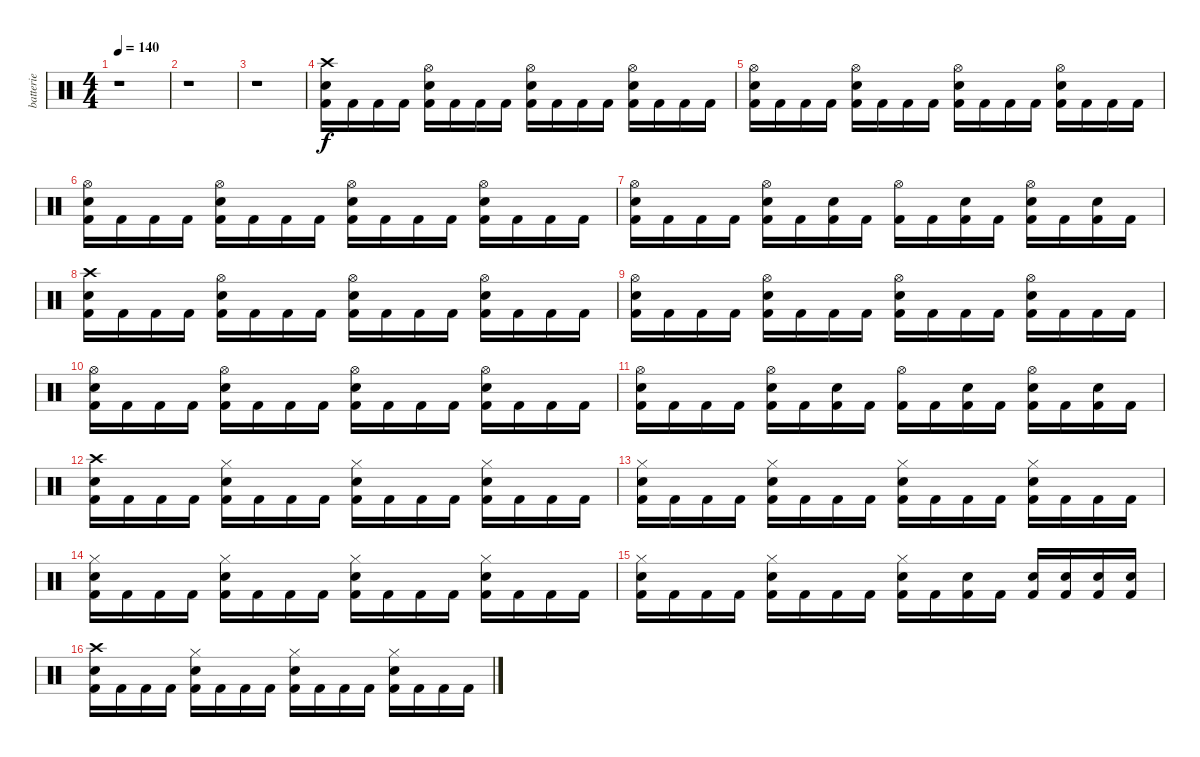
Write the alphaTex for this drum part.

\track ("batterie" "batterie") {instrument percussion}
\staff {score}
\articulation defaults
\ts (4 4)
\tempo 140
\clef neutral
\ks c
r.1{dy f} |
r.1 |
r.1 |
("Crash high (hit)" "Snare (hit) 2" "Kick (hit) 2").16 "Kick (hit) 2".16 "Kick (hit) 2".16 "Kick (hit) 2".16 ("Snare (hit) 2" "Kick (hit) 2" "Hi-Hat (open)").16 "Kick (hit) 2".16 "Kick (hit) 2".16 "Kick (hit) 2".16 ("Snare (hit) 2" "Kick (hit) 2" "Hi-Hat (open)").16 "Kick (hit) 2".16 "Kick (hit) 2".16 "Kick (hit) 2".16 ("Snare (hit) 2" "Kick (hit) 2" "Hi-Hat (open)").16 "Kick (hit) 2".16 "Kick (hit) 2".16 "Kick (hit) 2".16 |
("Snare (hit) 2" "Kick (hit) 2" "Hi-Hat (open)").16 "Kick (hit) 2".16 "Kick (hit) 2".16 "Kick (hit) 2".16 ("Snare (hit) 2" "Kick (hit) 2" "Hi-Hat (open)").16 "Kick (hit) 2".16 "Kick (hit) 2".16 "Kick (hit) 2".16 ("Snare (hit) 2" "Kick (hit) 2" "Hi-Hat (open)").16 "Kick (hit) 2".16 "Kick (hit) 2".16 "Kick (hit) 2".16 ("Snare (hit) 2" "Kick (hit) 2" "Hi-Hat (open)").16 "Kick (hit) 2".16 "Kick (hit) 2".16 "Kick (hit) 2".16 |
("Snare (hit) 2" "Kick (hit) 2" "Hi-Hat (open)").16 "Kick (hit) 2".16 "Kick (hit) 2".16 "Kick (hit) 2".16 ("Snare (hit) 2" "Kick (hit) 2" "Hi-Hat (open)").16 "Kick (hit) 2".16 "Kick (hit) 2".16 "Kick (hit) 2".16 ("Snare (hit) 2" "Kick (hit) 2" "Hi-Hat (open)").16 "Kick (hit) 2".16 "Kick (hit) 2".16 "Kick (hit) 2".16 ("Snare (hit) 2" "Kick (hit) 2" "Hi-Hat (open)").16 "Kick (hit) 2".16 "Kick (hit) 2".16 "Kick (hit) 2".16 |
("Snare (hit) 2" "Kick (hit) 2" "Hi-Hat (open)").16 "Kick (hit) 2".16 "Kick (hit) 2".16 "Kick (hit) 2".16 ("Snare (hit) 2" "Kick (hit) 2" "Hi-Hat (open)").16 "Kick (hit) 2".16 ("Snare (hit) 2" "Kick (hit) 2").16 "Kick (hit) 2".16 ("Kick (hit) 2" "Hi-Hat (open)").16 "Kick (hit) 2".16 ("Snare (hit) 2" "Kick (hit) 2").16 "Kick (hit) 2".16 ("Snare (hit) 2" "Kick (hit) 2" "Hi-Hat (open)").16 "Kick (hit) 2".16 ("Snare (hit) 2" "Kick (hit) 2").16 "Kick (hit) 2".16 |
("Crash high (hit)" "Snare (hit) 2" "Kick (hit) 2").16 "Kick (hit) 2".16 "Kick (hit) 2".16 "Kick (hit) 2".16 ("Snare (hit) 2" "Kick (hit) 2" "Hi-Hat (open)").16 "Kick (hit) 2".16 "Kick (hit) 2".16 "Kick (hit) 2".16 ("Snare (hit) 2" "Kick (hit) 2" "Hi-Hat (open)").16 "Kick (hit) 2".16 "Kick (hit) 2".16 "Kick (hit) 2".16 ("Snare (hit) 2" "Kick (hit) 2" "Hi-Hat (open)").16 "Kick (hit) 2".16 "Kick (hit) 2".16 "Kick (hit) 2".16 |
("Snare (hit) 2" "Kick (hit) 2" "Hi-Hat (open)").16 "Kick (hit) 2".16 "Kick (hit) 2".16 "Kick (hit) 2".16 ("Snare (hit) 2" "Kick (hit) 2" "Hi-Hat (open)").16 "Kick (hit) 2".16 "Kick (hit) 2".16 "Kick (hit) 2".16 ("Snare (hit) 2" "Kick (hit) 2" "Hi-Hat (open)").16 "Kick (hit) 2".16 "Kick (hit) 2".16 "Kick (hit) 2".16 ("Snare (hit) 2" "Kick (hit) 2" "Hi-Hat (open)").16 "Kick (hit) 2".16 "Kick (hit) 2".16 "Kick (hit) 2".16 |
("Snare (hit) 2" "Kick (hit) 2" "Hi-Hat (open)").16 "Kick (hit) 2".16 "Kick (hit) 2".16 "Kick (hit) 2".16 ("Snare (hit) 2" "Kick (hit) 2" "Hi-Hat (open)").16 "Kick (hit) 2".16 "Kick (hit) 2".16 "Kick (hit) 2".16 ("Snare (hit) 2" "Kick (hit) 2" "Hi-Hat (open)").16 "Kick (hit) 2".16 "Kick (hit) 2".16 "Kick (hit) 2".16 ("Snare (hit) 2" "Kick (hit) 2" "Hi-Hat (open)").16 "Kick (hit) 2".16 "Kick (hit) 2".16 "Kick (hit) 2".16 |
("Snare (hit) 2" "Kick (hit) 2" "Hi-Hat (open)").16 "Kick (hit) 2".16 "Kick (hit) 2".16 "Kick (hit) 2".16 ("Snare (hit) 2" "Kick (hit) 2" "Hi-Hat (open)").16 "Kick (hit) 2".16 ("Snare (hit) 2" "Kick (hit) 2").16 "Kick (hit) 2".16 ("Kick (hit) 2" "Hi-Hat (open)").16 "Kick (hit) 2".16 ("Snare (hit) 2" "Kick (hit) 2").16 "Kick (hit) 2".16 ("Snare (hit) 2" "Kick (hit) 2" "Hi-Hat (open)").16 "Kick (hit) 2".16 ("Snare (hit) 2" "Kick (hit) 2").16 "Kick (hit) 2".16 |
("Crash high (hit)" "Snare (hit) 2" "Kick (hit) 2").16 "Kick (hit) 2".16 "Kick (hit) 2".16 "Kick (hit) 2".16 ("Snare (hit) 2" "Kick (hit) 2" "Hi-Hat (closed)").16 "Kick (hit) 2".16 "Kick (hit) 2".16 "Kick (hit) 2".16 ("Snare (hit) 2" "Kick (hit) 2" "Hi-Hat (closed)").16 "Kick (hit) 2".16 "Kick (hit) 2".16 "Kick (hit) 2".16 ("Snare (hit) 2" "Kick (hit) 2" "Hi-Hat (closed)").16 "Kick (hit) 2".16 "Kick (hit) 2".16 "Kick (hit) 2".16 |
("Snare (hit) 2" "Kick (hit) 2" "Hi-Hat (closed)").16 "Kick (hit) 2".16 "Kick (hit) 2".16 "Kick (hit) 2".16 ("Snare (hit) 2" "Kick (hit) 2" "Hi-Hat (closed)").16 "Kick (hit) 2".16 "Kick (hit) 2".16 "Kick (hit) 2".16 ("Snare (hit) 2" "Kick (hit) 2" "Hi-Hat (closed)").16 "Kick (hit) 2".16 "Kick (hit) 2".16 "Kick (hit) 2".16 ("Snare (hit) 2" "Kick (hit) 2" "Hi-Hat (closed)").16 "Kick (hit) 2".16 "Kick (hit) 2".16 "Kick (hit) 2".16 |
("Snare (hit) 2" "Kick (hit) 2" "Hi-Hat (closed)").16 "Kick (hit) 2".16 "Kick (hit) 2".16 "Kick (hit) 2".16 ("Snare (hit) 2" "Kick (hit) 2" "Hi-Hat (closed)").16 "Kick (hit) 2".16 "Kick (hit) 2".16 "Kick (hit) 2".16 ("Snare (hit) 2" "Kick (hit) 2" "Hi-Hat (closed)").16 "Kick (hit) 2".16 "Kick (hit) 2".16 "Kick (hit) 2".16 ("Snare (hit) 2" "Kick (hit) 2" "Hi-Hat (closed)").16 "Kick (hit) 2".16 "Kick (hit) 2".16 "Kick (hit) 2".16 |
("Snare (hit) 2" "Kick (hit) 2" "Hi-Hat (closed)").16 "Kick (hit) 2".16 "Kick (hit) 2".16 "Kick (hit) 2".16 ("Snare (hit) 2" "Kick (hit) 2" "Hi-Hat (closed)").16 "Kick (hit) 2".16 "Kick (hit) 2".16 "Kick (hit) 2".16 ("Snare (hit) 2" "Kick (hit) 2" "Hi-Hat (closed)").16 "Kick (hit) 2".16 ("Snare (hit) 2" "Kick (hit) 2").16 "Kick (hit) 2".16 ("Snare (hit) 2" "Kick (hit) 2").16 ("Snare (hit) 2" "Kick (hit) 2").16 ("Snare (hit) 2" "Kick (hit) 2").16 ("Snare (hit) 2" "Kick (hit) 2").16 |
("Crash high (hit)" "Snare (hit) 2" "Kick (hit) 2").16 "Kick (hit) 2".16 "Kick (hit) 2".16 "Kick (hit) 2".16 ("Snare (hit) 2" "Kick (hit) 2" "Hi-Hat (closed)").16 "Kick (hit) 2".16 "Kick (hit) 2".16 "Kick (hit) 2".16 ("Snare (hit) 2" "Kick (hit) 2" "Hi-Hat (closed)").16 "Kick (hit) 2".16 "Kick (hit) 2".16 "Kick (hit) 2".16 ("Snare (hit) 2" "Kick (hit) 2" "Hi-Hat (closed)").16 "Kick (hit) 2".16 "Kick (hit) 2".16 "Kick (hit) 2".16
